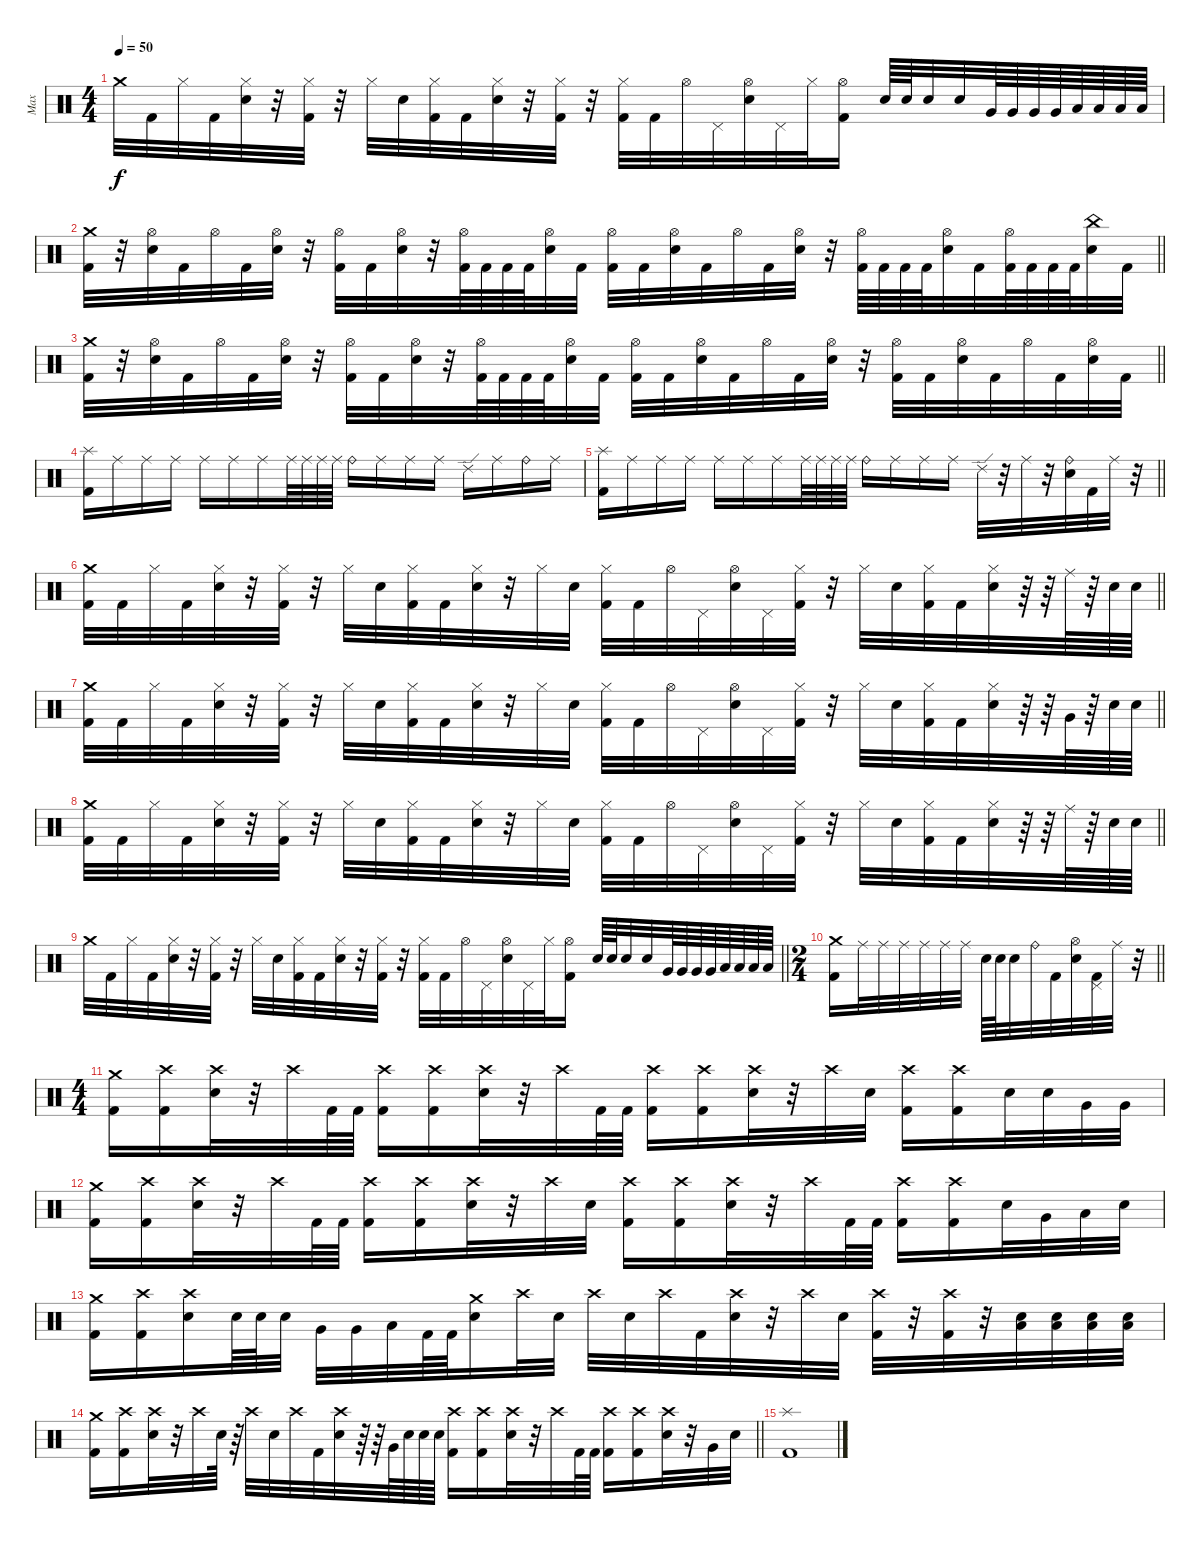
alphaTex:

\track ("Max" "Max") {instrument percussion}
\staff {score}
\articulation defaults
\ts (4 4)
\tempo 50
\clef neutral
\ks c "Crash medium (hit)".32{dy f} "Kick (hit) 2".32 "Hi-Hat (closed)".32 "Kick (hit) 2".32
("Hi-Hat (closed)" "Electric Snare (hit)").32 r.32 ("Hi-Hat (closed)" "Kick (hit) 2").32 r.32 "Hi-Hat (closed)".32 "Electric Snare (hit)".32 ("Hi-Hat (closed)" "Kick (hit) 2").32 "Kick (hit) 2".32 ("Hi-Hat (closed)" "Electric Snare (hit)").32 r.32 ("Hi-Hat (closed)" "Kick (hit) 2").32 r.32 ("Hi-Hat (closed)" "Kick (hit) 2").32 "Kick (hit) 2".32 "Hi-Hat (open)".32 "Pedal Hi-Hat (hit)".32 ("Hi-Hat (open)" "Electric Snare (hit)").32 "Pedal Hi-Hat (hit)".32 "Hi-Hat (closed)".32 ("Hi-Hat (open)" "Kick (hit) 2").16 "Electric Snare (hit)".64 "Electric Snare (hit)".64 "Electric Snare (hit)".32 "Electric Snare (hit)".32 "Very Low Tom (hit)".64 "Very Low Tom (hit)".64 "Very Low Tom (hit)".64 "Very Low Tom (hit)".64 "Low Floor Tom (hit)".64 "Low Floor Tom (hit)".64 "Low Floor Tom (hit)".64 "Low Floor Tom (hit)".64 |
\barLineRight lightlight
("Crash medium (hit)" "Kick (hit) 2").32 r.32 ("Hi-Hat (open)" "Electric Snare (hit)").32 "Kick (hit) 2".32 "Hi-Hat (open)".32 "Kick (hit) 2".32 ("Hi-Hat (open)" "Electric Snare (hit)").32 r.32 ("Hi-Hat (open)" "Kick (hit) 2").32 "Kick (hit) 2".32 ("Hi-Hat (open)" "Electric Snare (hit)").32 r.32 ("Hi-Hat (open)" "Kick (hit) 2").64 "Kick (hit) 2".64 "Kick (hit) 2".64 "Kick (hit) 2".64 ("Hi-Hat (open)" "Electric Snare (hit)").32 "Kick (hit) 2".32 ("Hi-Hat (open)" "Kick (hit) 2").32 "Kick (hit) 2".32 ("Hi-Hat (open)" "Electric Snare (hit)").32 "Kick (hit) 2".32 "Hi-Hat (open)".32 "Kick (hit) 2".32 ("Hi-Hat (open)" "Electric Snare (hit)").32 r.32 ("Hi-Hat (open)" "Kick (hit) 2").64 "Kick (hit) 2".64 "Kick (hit) 2".64 "Kick (hit) 2".64 ("Hi-Hat (open)" "Electric Snare (hit)").32 "Kick (hit) 2".32 ("Hi-Hat (open)" "Kick (hit) 2").64 "Kick (hit) 2".64 "Kick (hit) 2".64 "Kick (hit) 2".64 ("China (hit)" "Electric Snare (hit)").32 "Kick (hit) 2".32 |
\barLineRight lightlight
("Crash medium (hit)" "Kick (hit) 2").32 r.32 ("Hi-Hat (open)" "Electric Snare (hit)").32 "Kick (hit) 2".32 "Hi-Hat (open)".32 "Kick (hit) 2".32 ("Hi-Hat (open)" "Electric Snare (hit)").32 r.32 ("Hi-Hat (open)" "Kick (hit) 2").32 "Kick (hit) 2".32 ("Hi-Hat (open)" "Electric Snare (hit)").32 r.32 ("Hi-Hat (open)" "Kick (hit) 2").64 "Kick (hit) 2".64 "Kick (hit) 2".64 "Kick (hit) 2".64 ("Hi-Hat (open)" "Electric Snare (hit)").32 "Kick (hit) 2".32 ("Hi-Hat (open)" "Kick (hit) 2").32 "Kick (hit) 2".32 ("Hi-Hat (open)" "Electric Snare (hit)").32 "Kick (hit) 2".32 "Hi-Hat (open)".32 "Kick (hit) 2".32 ("Hi-Hat (open)" "Electric Snare (hit)").32 r.32 ("Hi-Hat (open)" "Kick (hit) 2").32 "Kick (hit) 2".32 ("Hi-Hat (open)" "Electric Snare (hit)").32 "Kick (hit) 2".32 "Hi-Hat (open)".32 "Kick (hit) 2".32 ("Hi-Hat (open)" "Electric Snare (hit)").32 "Kick (hit) 2".32 |
\section ("" "")
("Splash (hit)" "Kick (hit) 2").16 "Ride (middle)".16 "Ride (middle)".16 "Ride (middle)".16 "Ride (middle)".16 "Ride (middle)".16 "Ride (middle)".16 "Ride (middle)".64 "Ride (middle)".64 "Ride (middle)".64 "Ride (middle)".64 "Ride (bell)".16 "Ride (middle)".16 "Ride (middle)".16 "Ride (middle)".16 "Ride (edge) 2".16 "Ride (middle)".16 "Ride (bell)".16 "Ride (middle)".16 |
\barLineRight lightlight
("Splash (hit)" "Kick (hit) 2").16 "Ride (middle)".16 "Ride (middle)".16 "Ride (middle)".16 "Ride (middle)".16 "Ride (middle)".16 "Ride (middle)".16 "Ride (middle)".64 "Ride (middle)".64 "Ride (middle)".64 "Ride (middle)".64 "Ride (bell)".16 "Ride (middle)".16 "Ride (middle)".16 "Ride (middle)".16 "Ride (edge) 2".32 r.32 "Ride (middle)".32 r.32 ("Ride (bell)" "Electric Snare (hit)").32 "Kick (hit) 2".32 "Ride (middle)".32 r.32 |
\section ("" "")
\barLineRight lightlight
("Crash medium (hit)" "Kick (hit) 2").32 "Kick (hit) 2".32 "Hi-Hat (closed)".32 "Kick (hit) 2".32 ("Hi-Hat (closed)" "Electric Snare (hit)").32 r.32 ("Hi-Hat (closed)" "Kick (hit) 2").32 r.32 "Hi-Hat (closed)".32 "Electric Snare (hit)".32 ("Hi-Hat (closed)" "Kick (hit) 2").32 "Kick (hit) 2".32 ("Hi-Hat (closed)" "Electric Snare (hit)").32 r.32 "Hi-Hat (closed)".32 "Electric Snare (hit)".32 ("Hi-Hat (closed)" "Kick (hit) 2").32 "Kick (hit) 2".32 "Hi-Hat (open)".32 "Pedal Hi-Hat (hit)".32 ("Hi-Hat (open)" "Electric Snare (hit)").32 "Pedal Hi-Hat (hit)".32 ("Hi-Hat (closed)" "Kick (hit) 2").32 r.32 "Hi-Hat (closed)".32 "Electric Snare (hit)".32 ("Hi-Hat (closed)" "Kick (hit) 2").32 "Kick (hit) 2".32 ("Hi-Hat (closed)" "Electric Snare (hit)").32 r.64 r.64 "Ride (middle)".64 r.64 "Electric Snare (hit)".64 "Electric Snare (hit)".64 |
\barLineRight lightlight
("Crash medium (hit)" "Kick (hit) 2").32 "Kick (hit) 2".32 "Hi-Hat (closed)".32 "Kick (hit) 2".32 ("Hi-Hat (closed)" "Electric Snare (hit)").32 r.32 ("Hi-Hat (closed)" "Kick (hit) 2").32 r.32 "Hi-Hat (closed)".32 "Electric Snare (hit)".32 ("Hi-Hat (closed)" "Kick (hit) 2").32 "Kick (hit) 2".32 ("Hi-Hat (closed)" "Electric Snare (hit)").32 r.32 "Hi-Hat (closed)".32 "Electric Snare (hit)".32 ("Hi-Hat (closed)" "Kick (hit) 2").32 "Kick (hit) 2".32 "Hi-Hat (open)".32 "Pedal Hi-Hat (hit)".32 ("Hi-Hat (open)" "Electric Snare (hit)").32 "Pedal Hi-Hat (hit)".32 ("Hi-Hat (closed)" "Kick (hit) 2").32 r.32 "Hi-Hat (closed)".32 "Electric Snare (hit)".32 ("Hi-Hat (closed)" "Kick (hit) 2").32 "Kick (hit) 2".32 ("Hi-Hat (closed)" "Electric Snare (hit)").32 r.64 r.64 "Very Low Tom (hit)".64 r.64 "Electric Snare (hit)".64 "Electric Snare (hit)".64 |
\barLineRight lightlight
("Crash medium (hit)" "Kick (hit) 2").32 "Kick (hit) 2".32 "Hi-Hat (closed)".32 "Kick (hit) 2".32 ("Hi-Hat (closed)" "Electric Snare (hit)").32 r.32 ("Hi-Hat (closed)" "Kick (hit) 2").32 r.32 "Hi-Hat (closed)".32 "Electric Snare (hit)".32 ("Hi-Hat (closed)" "Kick (hit) 2").32 "Kick (hit) 2".32 ("Hi-Hat (closed)" "Electric Snare (hit)").32 r.32 "Hi-Hat (closed)".32 "Electric Snare (hit)".32 ("Hi-Hat (closed)" "Kick (hit) 2").32 "Kick (hit) 2".32 "Hi-Hat (open)".32 "Pedal Hi-Hat (hit)".32 ("Hi-Hat (open)" "Electric Snare (hit)").32 "Pedal Hi-Hat (hit)".32 ("Hi-Hat (closed)" "Kick (hit) 2").32 r.32 "Hi-Hat (closed)".32 "Electric Snare (hit)".32 ("Hi-Hat (closed)" "Kick (hit) 2").32 "Kick (hit) 2".32 ("Hi-Hat (closed)" "Electric Snare (hit)").32 r.64 r.64 "Ride (middle)".64 r.64 "Electric Snare (hit)".64 "Electric Snare (hit)".64 |
\barLineRight lightlight "Crash medium (hit)".32 "Kick (hit) 2".32 "Hi-Hat (closed)".32 "Kick (hit) 2".32
("Hi-Hat (closed)" "Electric Snare (hit)").32 r.32 ("Hi-Hat (closed)" "Kick (hit) 2").32 r.32 "Hi-Hat (closed)".32 "Electric Snare (hit)".32 ("Hi-Hat (closed)" "Kick (hit) 2").32 "Kick (hit) 2".32 ("Hi-Hat (closed)" "Electric Snare (hit)").32 r.32 ("Hi-Hat (closed)" "Kick (hit) 2").32 r.32 ("Hi-Hat (closed)" "Kick (hit) 2").32 "Kick (hit) 2".32 "Hi-Hat (open)".32 "Pedal Hi-Hat (hit)".32 ("Hi-Hat (open)" "Electric Snare (hit)").32 "Pedal Hi-Hat (hit)".32 "Hi-Hat (closed)".32 ("Hi-Hat (open)" "Kick (hit) 2").16 "Electric Snare (hit)".64 "Electric Snare (hit)".64 "Electric Snare (hit)".32 "Electric Snare (hit)".32 "Very Low Tom (hit)".64 "Very Low Tom (hit)".64 "Very Low Tom (hit)".64 "Very Low Tom (hit)".64 "Low Floor Tom (hit)".64 "Low Floor Tom (hit)".64 "Low Floor Tom (hit)".64 "Low Floor Tom (hit)".64 |
\ts (2 4)
\section ("" "")
\barLineRight lightlight
("Crash medium (hit)" "Kick (hit) 2").16 "Ride (middle)".32 "Ride (middle)".32 "Ride (middle)".32 "Ride (middle)".32 "Ride (middle)".32 "Ride (middle)".32 "Electric Snare (hit)".64 "Electric Snare (hit)".64 "Electric Snare (hit)".32 "Ride (bell)".32 "Kick (hit) 2".32 ("Hi-Hat (open)" "Electric Snare (hit)").32 ("Pedal Hi-Hat (hit)" "Kick (hit) 2").32 "Ride (middle)".32 r.32 |
\ts (4 4)
\section ("" "")
("Crash medium (hit)" "Kick (hit) 2").16 ("Crash high (hit)" "Kick (hit) 2").16 ("Crash high (hit)" "Electric Snare (hit)").32 r.32 "Crash high (hit)".32 "Kick (hit) 2".64 "Kick (hit) 2".64 ("Crash high (hit)" "Kick (hit) 2").16 ("Crash high (hit)" "Kick (hit) 2").16 ("Crash high (hit)" "Electric Snare (hit)").32 r.32 "Crash high (hit)".32 "Kick (hit) 2".64 "Kick (hit) 2".64 ("Crash high (hit)" "Kick (hit) 2").16 ("Crash high (hit)" "Kick (hit) 2").16 ("Crash high (hit)" "Electric Snare (hit)").32 r.32 "Crash high (hit)".32 "Electric Snare (hit)".32 ("Crash high (hit)" "Kick (hit) 2").16 ("Crash high (hit)" "Kick (hit) 2").16 "Electric Snare (hit)".32 "Electric Snare (hit)".32 "Very Low Tom (hit)".32 "Very Low Tom (hit)".32 |
("Crash medium (hit)" "Kick (hit) 2").16 ("Crash high (hit)" "Kick (hit) 2").16 ("Crash high (hit)" "Electric Snare (hit)").32 r.32 "Crash high (hit)".32 "Kick (hit) 2".64 "Kick (hit) 2".64 ("Crash high (hit)" "Kick (hit) 2").16 ("Crash high (hit)" "Kick (hit) 2").16 ("Crash high (hit)" "Electric Snare (hit)").32 r.32 "Crash high (hit)".32 "Electric Snare (hit)".32 ("Crash high (hit)" "Kick (hit) 2").16 ("Crash high (hit)" "Kick (hit) 2").16 ("Crash high (hit)" "Electric Snare (hit)").32 r.32 "Crash high (hit)".32 "Kick (hit) 2".64 "Kick (hit) 2".64 ("Crash high (hit)" "Kick (hit) 2").16 ("Crash high (hit)" "Kick (hit) 2").16 "Electric Snare (hit)".32 "Very Low Tom (hit)".32 "Low Floor Tom (hit)".32 "Electric Snare (hit)".32 |
("Crash medium (hit)" "Kick (hit) 2").16 ("Crash high (hit)" "Kick (hit) 2").16 ("Crash high (hit)" "Electric Snare (hit)").16 "Electric Snare (hit)".64 "Electric Snare (hit)".64 "Electric Snare (hit)".32 "Very Low Tom (hit)".32 "Very Low Tom (hit)".32 "Low Floor Tom (hit)".32 "Kick (hit) 2".64 "Kick (hit) 2".64 ("Crash medium (hit)" "Electric Snare (hit)").16 "Crash high (hit)".32 "Electric Snare (hit)".32 "Crash high (hit)".32 "Electric Snare (hit)".32 "Crash high (hit)".32 "Kick (hit) 2".32 ("Crash high (hit)" "Electric Snare (hit)").32 r.32 "Crash high (hit)".32 "Electric Snare (hit)".32 ("Crash high (hit)" "Kick (hit) 2").32 r.32 ("Crash high (hit)" "Kick (hit) 2").32 r.32 ("Electric Snare (hit)" "Low Floor Tom (hit)").32 ("Electric Snare (hit)" "Low Floor Tom (hit)").32 ("Electric Snare (hit)" "Low Floor Tom (hit)").32 ("Electric Snare (hit)" "Low Floor Tom (hit)").32 |
\barLineRight lightlight
("Crash medium (hit)" "Kick (hit) 2").16 ("Crash high (hit)" "Kick (hit) 2").16 ("Crash high (hit)" "Electric Snare (hit)").32 r.32 "Crash high (hit)".32 "Electric Snare (hit)".64 r.64 "Crash high (hit)".32 "Electric Snare (hit)".32 "Crash high (hit)".32 "Kick (hit) 2".32 ("Crash high (hit)" "Electric Snare (hit)").32 r.64 r.64 "Very Low Tom (hit)".64 "Electric Snare (hit)".64 "Electric Snare (hit)".64 "Electric Snare (hit)".64 ("Crash high (hit)" "Kick (hit) 2").16 ("Crash high (hit)" "Kick (hit) 2").16 ("Crash high (hit)" "Electric Snare (hit)").32 r.32 "Crash high (hit)".32 "Kick (hit) 2".64 "Kick (hit) 2".64 ("Crash high (hit)" "Kick (hit) 2").16 ("Crash high (hit)" "Kick (hit) 2").16 ("Crash high (hit)" "Electric Snare (hit)").32 r.32 "Very Low Tom (hit)".32 "Electric Snare (hit)".32 |
\section ("" "")
("Splash (hit)" "Kick (hit) 2").1
